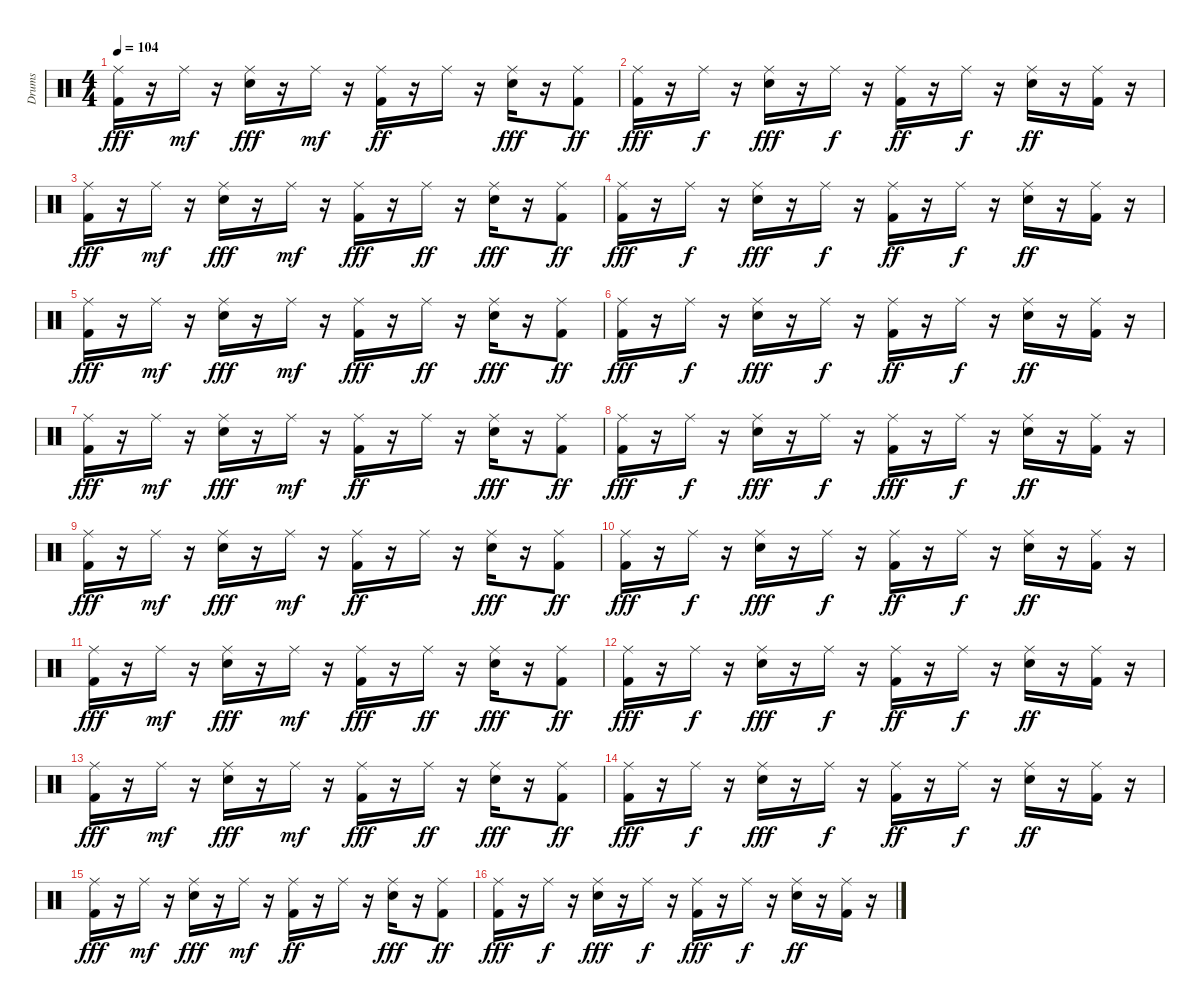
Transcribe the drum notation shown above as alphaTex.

\track ("Drums" "Drums") {instrument percussion}
\staff {score}
\articulation defaults
\ts (4 4)
\tempo 104
\clef neutral
\ks c
("Ride (middle)" "Kick (hit) 2").16{dy fff} r.16 "Ride (middle)".16{dy mf} r.16 ("Ride (middle)" "Snare (hit) 2").16{dy fff} r.16 "Ride (middle)".16{dy mf} r.16 ("Kick (hit) 2" "Ride (middle)").16{dy ff} r.16 "Ride (middle)".16 r.16 ("Snare (hit) 2" "Ride (middle)").16{dy fff} r.16 ("Ride (middle)" "Kick (hit) 2").8{dy ff} |
("Kick (hit) 2" "Ride (middle)").16{dy fff} r.16 "Ride (middle)".16{dy f} r.16 ("Snare (hit) 2" "Ride (middle)").16{dy fff} r.16 "Ride (middle)".16{dy f} r.16 ("Kick (hit) 2" "Ride (middle)").16{dy ff} r.16 "Ride (middle)".16{dy f} r.16 ("Snare (hit) 2" "Ride (middle)").16{dy ff} r.16 ("Ride (middle)" "Kick (hit) 2").16 r.16 |
("Kick (hit) 2" "Ride (middle)").16{dy fff} r.16 "Ride (middle)".16{dy mf} r.16 ("Ride (middle)" "Snare (hit) 2").16{dy fff} r.16 "Ride (middle)".16{dy mf} r.16 ("Ride (middle)" "Kick (hit) 2").16{dy fff} r.16 "Ride (middle)".16{dy ff} r.16 ("Ride (middle)" "Snare (hit) 2").16{dy fff} r.16 ("Ride (middle)" "Kick (hit) 2").8{dy ff} |
("Ride (middle)" "Kick (hit) 2").16{dy fff} r.16 "Ride (middle)".16{dy f} r.16 ("Snare (hit) 2" "Ride (middle)").16{dy fff} r.16 "Ride (middle)".16{dy f} r.16 ("Kick (hit) 2" "Ride (middle)").16{dy ff} r.16 "Ride (middle)".16{dy f} r.16 ("Snare (hit) 2" "Ride (middle)").16{dy ff} r.16 ("Ride (middle)" "Kick (hit) 2").16 r.16 |
("Kick (hit) 2" "Ride (middle)").16{dy fff} r.16 "Ride (middle)".16{dy mf} r.16 ("Snare (hit) 2" "Ride (middle)").16{dy fff} r.16 "Ride (middle)".16{dy mf} r.16 ("Ride (middle)" "Kick (hit) 2").16{dy fff} r.16 "Ride (middle)".16{dy ff} r.16 ("Ride (middle)" "Snare (hit) 2").16{dy fff} r.16 ("Ride (middle)" "Kick (hit) 2").8{dy ff} |
("Ride (middle)" "Kick (hit) 2").16{dy fff} r.16 "Ride (middle)".16{dy f} r.16 ("Snare (hit) 2" "Ride (middle)").16{dy fff} r.16 "Ride (middle)".16{dy f} r.16 ("Kick (hit) 2" "Ride (middle)").16{dy ff} r.16 "Ride (middle)".16{dy f} r.16 ("Snare (hit) 2" "Ride (middle)").16{dy ff} r.16 ("Ride (middle)" "Kick (hit) 2").16 r.16 |
("Kick (hit) 2" "Ride (middle)").16{dy fff} r.16 "Ride (middle)".16{dy mf} r.16 ("Ride (middle)" "Snare (hit) 2").16{dy fff} r.16 "Ride (middle)".16{dy mf} r.16 ("Kick (hit) 2" "Ride (middle)").16{dy ff} r.16 "Ride (middle)".16 r.16 ("Ride (middle)" "Snare (hit) 2").16{dy fff} r.16 ("Ride (middle)" "Kick (hit) 2").8{dy ff} |
("Kick (hit) 2" "Ride (middle)").16{dy fff} r.16 "Ride (middle)".16{dy f} r.16 ("Ride (middle)" "Snare (hit) 2").16{dy fff} r.16 "Ride (middle)".16{dy f} r.16 ("Ride (middle)" "Kick (hit) 2").16{dy fff} r.16 "Ride (middle)".16{dy f} r.16 ("Snare (hit) 2" "Ride (middle)").16{dy ff} r.16 ("Kick (hit) 2" "Ride (middle)").16 r.16 |
("Ride (middle)" "Kick (hit) 2").16{dy fff} r.16 "Ride (middle)".16{dy mf} r.16 ("Ride (middle)" "Snare (hit) 2").16{dy fff} r.16 "Ride (middle)".16{dy mf} r.16 ("Kick (hit) 2" "Ride (middle)").16{dy ff} r.16 "Ride (middle)".16 r.16 ("Snare (hit) 2" "Ride (middle)").16{dy fff} r.16 ("Ride (middle)" "Kick (hit) 2").8{dy ff} |
("Kick (hit) 2" "Ride (middle)").16{dy fff} r.16 "Ride (middle)".16{dy f} r.16 ("Snare (hit) 2" "Ride (middle)").16{dy fff} r.16 "Ride (middle)".16{dy f} r.16 ("Kick (hit) 2" "Ride (middle)").16{dy ff} r.16 "Ride (middle)".16{dy f} r.16 ("Snare (hit) 2" "Ride (middle)").16{dy ff} r.16 ("Ride (middle)" "Kick (hit) 2").16 r.16 |
("Kick (hit) 2" "Ride (middle)").16{dy fff} r.16 "Ride (middle)".16{dy mf} r.16 ("Ride (middle)" "Snare (hit) 2").16{dy fff} r.16 "Ride (middle)".16{dy mf} r.16 ("Ride (middle)" "Kick (hit) 2").16{dy fff} r.16 "Ride (middle)".16{dy ff} r.16 ("Ride (middle)" "Snare (hit) 2").16{dy fff} r.16 ("Ride (middle)" "Kick (hit) 2").8{dy ff} |
("Ride (middle)" "Kick (hit) 2").16{dy fff} r.16 "Ride (middle)".16{dy f} r.16 ("Snare (hit) 2" "Ride (middle)").16{dy fff} r.16 "Ride (middle)".16{dy f} r.16 ("Kick (hit) 2" "Ride (middle)").16{dy ff} r.16 "Ride (middle)".16{dy f} r.16 ("Snare (hit) 2" "Ride (middle)").16{dy ff} r.16 ("Ride (middle)" "Kick (hit) 2").16 r.16 |
("Kick (hit) 2" "Ride (middle)").16{dy fff} r.16 "Ride (middle)".16{dy mf} r.16 ("Snare (hit) 2" "Ride (middle)").16{dy fff} r.16 "Ride (middle)".16{dy mf} r.16 ("Ride (middle)" "Kick (hit) 2").16{dy fff} r.16 "Ride (middle)".16{dy ff} r.16 ("Ride (middle)" "Snare (hit) 2").16{dy fff} r.16 ("Ride (middle)" "Kick (hit) 2").8{dy ff} |
("Ride (middle)" "Kick (hit) 2").16{dy fff} r.16 "Ride (middle)".16{dy f} r.16 ("Snare (hit) 2" "Ride (middle)").16{dy fff} r.16 "Ride (middle)".16{dy f} r.16 ("Kick (hit) 2" "Ride (middle)").16{dy ff} r.16 "Ride (middle)".16{dy f} r.16 ("Snare (hit) 2" "Ride (middle)").16{dy ff} r.16 ("Ride (middle)" "Kick (hit) 2").16 r.16 |
("Kick (hit) 2" "Ride (middle)").16{dy fff} r.16 "Ride (middle)".16{dy mf} r.16 ("Ride (middle)" "Snare (hit) 2").16{dy fff} r.16 "Ride (middle)".16{dy mf} r.16 ("Kick (hit) 2" "Ride (middle)").16{dy ff} r.16 "Ride (middle)".16 r.16 ("Ride (middle)" "Snare (hit) 2").16{dy fff} r.16 ("Ride (middle)" "Kick (hit) 2").8{dy ff} |
("Kick (hit) 2" "Ride (middle)").16{dy fff} r.16 "Ride (middle)".16{dy f} r.16 ("Ride (middle)" "Snare (hit) 2").16{dy fff} r.16 "Ride (middle)".16{dy f} r.16 ("Ride (middle)" "Kick (hit) 2").16{dy fff} r.16 "Ride (middle)".16{dy f} r.16 ("Snare (hit) 2" "Ride (middle)").16{dy ff} r.16 ("Kick (hit) 2" "Ride (middle)").16 r.16
